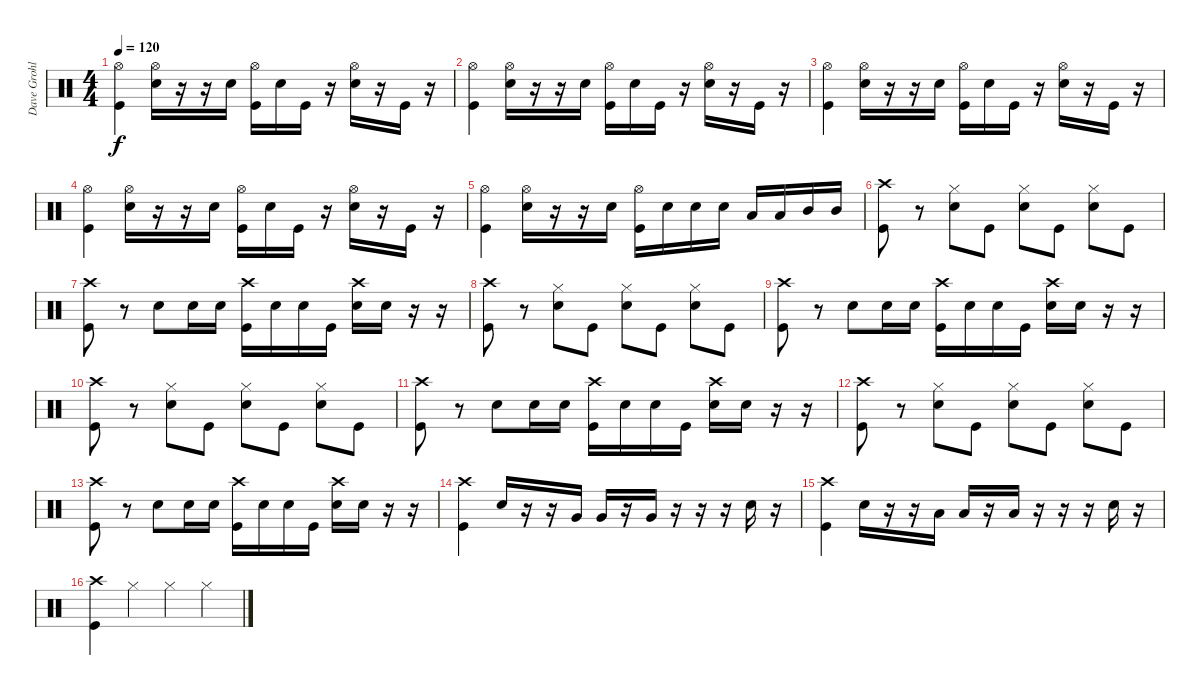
\track ("Dave Grohl (Drums)" "Dave Grohl") {instrument percussion}
\staff {score}
\articulation defaults
\ts (4 4)
\tempo 120
\clef neutral
\ks c
("Hi-Hat (open)" "Kick (hit)").4{dy f} ("Hi-Hat (open)" "Snare (hit) 2").16 r.16 r.16 "Snare (hit) 2".16 ("Hi-Hat (open)" "Kick (hit)").16 "Snare (hit) 2".16 "Kick (hit)".16 r.16 ("Hi-Hat (open)" "Snare (hit) 2").16 r.16 "Kick (hit)".16 r.16 |
("Hi-Hat (open)" "Kick (hit)").4 ("Hi-Hat (open)" "Snare (hit) 2").16 r.16 r.16 "Snare (hit) 2".16 ("Hi-Hat (open)" "Kick (hit)").16 "Snare (hit) 2".16 "Kick (hit)".16 r.16 ("Hi-Hat (open)" "Snare (hit) 2").16 r.16 "Kick (hit)".16 r.16 |
("Hi-Hat (open)" "Kick (hit)").4 ("Hi-Hat (open)" "Snare (hit) 2").16 r.16 r.16 "Snare (hit) 2".16 ("Hi-Hat (open)" "Kick (hit)").16 "Snare (hit) 2".16 "Kick (hit)".16 r.16 ("Hi-Hat (open)" "Snare (hit) 2").16 r.16 "Kick (hit)".16 r.16 |
("Hi-Hat (open)" "Kick (hit)").4 ("Hi-Hat (open)" "Snare (hit) 2").16 r.16 r.16 "Snare (hit) 2".16 ("Hi-Hat (open)" "Kick (hit)").16 "Snare (hit) 2".16 "Kick (hit)".16 r.16 ("Hi-Hat (open)" "Snare (hit) 2").16 r.16 "Kick (hit)".16 r.16 |
("Hi-Hat (open)" "Kick (hit)").4 ("Hi-Hat (open)" "Snare (hit) 2").16 r.16 r.16 "Snare (hit) 2".16 ("Hi-Hat (open)" "Kick (hit)").16 "Snare (hit) 2".16 "Snare (hit) 2".16 "Snare (hit) 2".16 "Low Tom (hit)".16 "Low Tom (hit)".16 "Mid Tom (hit)".16 "Mid Tom (hit)".16 |
("Crash high (hit)" "Kick (hit)").8 r.8 ("Hi-Hat (closed)" "Snare (hit) 2").8 "Kick (hit)".8 ("Hi-Hat (closed)" "Snare (hit) 2").8 "Kick (hit)".8 ("Hi-Hat (closed)" "Snare (hit) 2").8 "Kick (hit)".8 |
("Crash high (hit)" "Kick (hit)").8 r.8 "Snare (hit) 2".8 "Snare (hit) 2".16 "Snare (hit) 2".16 ("Crash high (hit)" "Kick (hit)").16 "Snare (hit) 2".16 "Snare (hit) 2".16 "Kick (hit)".16 ("Crash high (hit)" "Snare (hit) 2").16 "Snare (hit) 2".16 r.16 r.16 |
("Crash high (hit)" "Kick (hit)").8 r.8 ("Hi-Hat (closed)" "Snare (hit) 2").8 "Kick (hit)".8 ("Hi-Hat (closed)" "Snare (hit) 2").8 "Kick (hit)".8 ("Hi-Hat (closed)" "Snare (hit) 2").8 "Kick (hit)".8 |
("Crash high (hit)" "Kick (hit)").8 r.8 "Snare (hit) 2".8 "Snare (hit) 2".16 "Snare (hit) 2".16 ("Crash high (hit)" "Kick (hit)").16 "Snare (hit) 2".16 "Snare (hit) 2".16 "Kick (hit)".16 ("Crash high (hit)" "Snare (hit) 2").16 "Snare (hit) 2".16 r.16 r.16 |
("Crash high (hit)" "Kick (hit)").8 r.8 ("Hi-Hat (closed)" "Snare (hit) 2").8 "Kick (hit)".8 ("Hi-Hat (closed)" "Snare (hit) 2").8 "Kick (hit)".8 ("Hi-Hat (closed)" "Snare (hit) 2").8 "Kick (hit)".8 |
("Crash high (hit)" "Kick (hit)").8 r.8 "Snare (hit) 2".8 "Snare (hit) 2".16 "Snare (hit) 2".16 ("Crash high (hit)" "Kick (hit)").16 "Snare (hit) 2".16 "Snare (hit) 2".16 "Kick (hit)".16 ("Crash high (hit)" "Snare (hit) 2").16 "Snare (hit) 2".16 r.16 r.16 |
("Crash high (hit)" "Kick (hit)").8 r.8 ("Hi-Hat (closed)" "Snare (hit) 2").8 "Kick (hit)".8 ("Hi-Hat (closed)" "Snare (hit) 2").8 "Kick (hit)".8 ("Hi-Hat (closed)" "Snare (hit) 2").8 "Kick (hit)".8 |
("Crash high (hit)" "Kick (hit)").8 r.8 "Snare (hit) 2".8 "Snare (hit) 2".16 "Snare (hit) 2".16 ("Crash high (hit)" "Kick (hit)").16 "Snare (hit) 2".16 "Snare (hit) 2".16 "Kick (hit)".16 ("Crash high (hit)" "Snare (hit) 2").16 "Snare (hit) 2".16 r.16 r.16 |
("Crash high (hit)" "Kick (hit)").4 "Snare (hit) 2".16 r.16 r.16 "Very Low Tom (hit)".16 "Very Low Tom (hit)".16 r.16 "Very Low Tom (hit)".16 r.16 r.16 r.16 "Snare (hit) 2".16 r.16 |
("Crash high (hit)" "Kick (hit)").4 "Snare (hit) 2".16 r.16 r.16 "Low Floor Tom (hit)".16 "Low Floor Tom (hit)".16 r.16 "Low Floor Tom (hit)".16 r.16 r.16 r.16 "Snare (hit) 2".16 r.16 |
("Crash high (hit)" "Kick (hit)").4 "Hi-Hat (closed)".4 "Hi-Hat (closed)".4 "Hi-Hat (closed)".4
